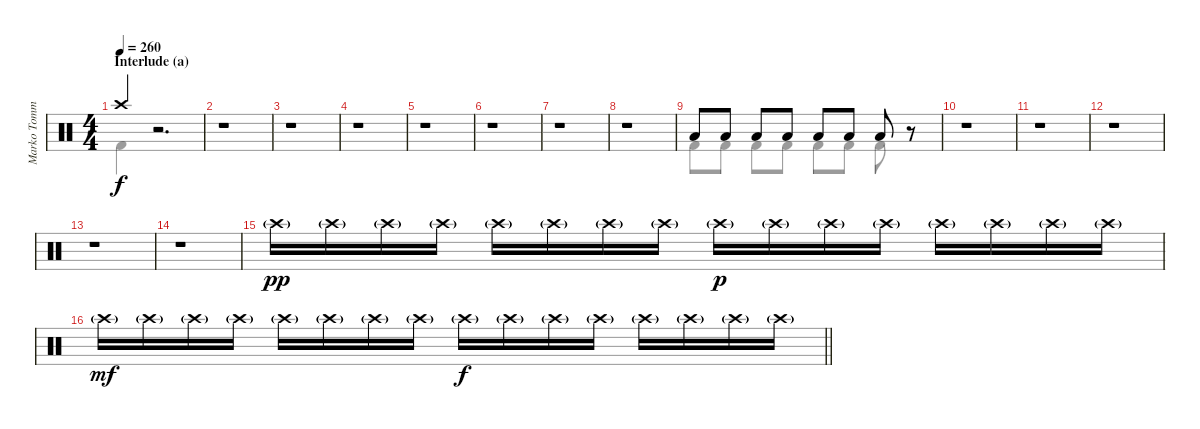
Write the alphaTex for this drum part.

\track ("Marko Tommila (drums)" "Marko Tomm") {instrument percussion}
\staff {score}
\articulation defaults
\voice
\ts (4 4)
\section ("" "Interlude (a)")
\tempo 260
\clef neutral
\ks aminor "Crash high (hit)".4{dy f}
r.2{d} |
r.1 |
r.1 |
r.1 |
r.1 |
r.1 |
r.1 |
r.1 |
"Low Tom (hit)".8 "Low Tom (hit)".8 "Low Tom (hit)".8 "Low Tom (hit)".8 "Low Tom (hit)".8 "Low Tom (hit)".8 "Low Tom (hit)".8 r.8 |
r.1 |
r.1 |
r.1 |
r.1 |
r.1 |
"Crash high (hit)"{g}.16{dy pp} "Crash high (hit)"{g}.16 "Crash high (hit)"{g}.16 "Crash high (hit)"{g}.16 "Crash high (hit)"{g}.16 "Crash high (hit)"{g}.16 "Crash high (hit)"{g}.16 "Crash high (hit)"{g}.16 "Crash high (hit)"{g}.16{dy p} "Crash high (hit)"{g}.16 "Crash high (hit)"{g}.16 "Crash high (hit)"{g}.16 "Crash high (hit)"{g}.16 "Crash high (hit)"{g}.16 "Crash high (hit)"{g}.16 "Crash high (hit)"{g}.16 |
\barLineRight lightlight "Crash high (hit)"{g}.16{dy mf} "Crash high (hit)"{g}.16 "Crash high (hit)"{g}.16 "Crash high (hit)"{g}.16 "Crash high (hit)"{g}.16 "Crash high (hit)"{g}.16 "Crash high (hit)"{g}.16 "Crash high (hit)"{g}.16 "Crash high (hit)"{g}.16{dy f} "Crash high (hit)"{g}.16 "Crash high (hit)"{g}.16 "Crash high (hit)"{g}.16 "Crash high (hit)"{g}.16 "Crash high (hit)"{g}.16 "Crash high (hit)"{g}.16 "Crash high (hit)"{g}.16
\voice
\clef neutral
\ottava regular
\simile none
\ks aminor "Kick (hit) 2".4{dy f}
r.2{d} |
|
|
|
|
|
|
|
"Kick (hit) 2".8 "Kick (hit) 2".8 "Kick (hit) 2".8 "Kick (hit) 2".8 "Kick (hit) 2".8 "Kick (hit) 2".8 "Kick (hit) 2".8 r.8 |
|
|
|
|
|
|
\barLineRight lightlight
